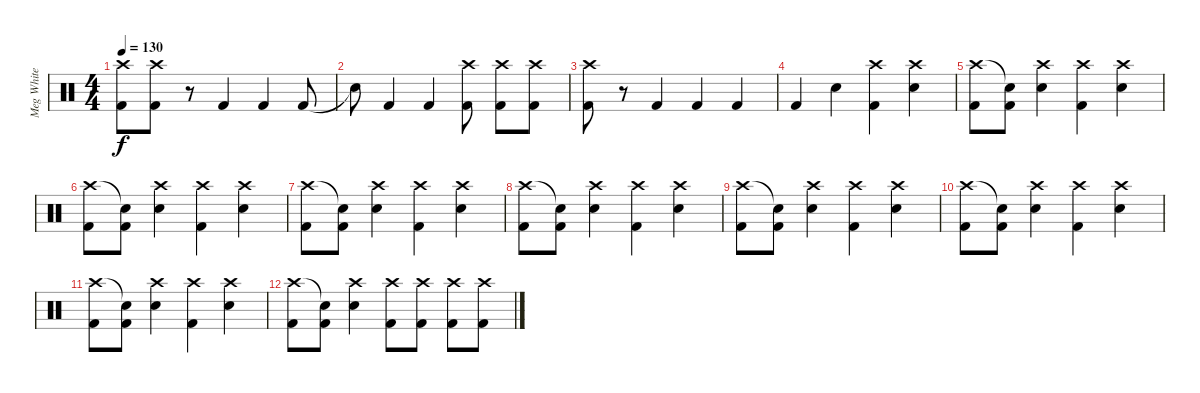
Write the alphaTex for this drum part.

\track ("Meg White" "Meg White") {instrument percussion}
\staff {score}
\articulation defaults
\ts (4 4)
\tempo 130
\clef neutral
\ks c
("Crash high (hit)" "Kick (hit) 2").8{dy f} ("Crash high (hit)" "Kick (hit) 2").8 r.8 "Kick (hit) 2".4 "Kick (hit) 2".4 "Kick (hit) 2".8 |
"Snare (hit)"{t}.8 "Kick (hit) 2".4 "Kick (hit) 2".4 ("Crash high (hit)" "Kick (hit) 2").8 ("Crash high (hit)" "Kick (hit) 2").8 ("Crash high (hit)" "Kick (hit) 2").8 |
("Crash high (hit)" "Kick (hit) 2").8 r.8 "Kick (hit) 2".4 "Kick (hit) 2".4 "Kick (hit) 2".4 |
"Kick (hit) 2".4 "Snare (hit) 2".4 ("Crash high (hit)" "Kick (hit) 2").4 ("Crash high (hit)" "Snare (hit) 2").4 |
("Crash high (hit)" "Kick (hit) 2").8 ("Snare (hit)"{t} "Kick (hit) 2").8 ("Crash high (hit)" "Snare (hit) 2").4 ("Crash high (hit)" "Kick (hit) 2").4 ("Crash high (hit)" "Snare (hit) 2").4 |
("Crash high (hit)" "Kick (hit) 2").8 ("Snare (hit)"{t} "Kick (hit) 2").8 ("Crash high (hit)" "Snare (hit) 2").4 ("Crash high (hit)" "Kick (hit) 2").4 ("Crash high (hit)" "Snare (hit) 2").4 |
("Crash high (hit)" "Kick (hit) 2").8 ("Snare (hit)"{t} "Kick (hit) 2").8 ("Crash high (hit)" "Snare (hit) 2").4 ("Crash high (hit)" "Kick (hit) 2").4 ("Crash high (hit)" "Snare (hit) 2").4 |
("Crash high (hit)" "Kick (hit) 2").8 ("Snare (hit)"{t} "Kick (hit) 2").8 ("Crash high (hit)" "Snare (hit) 2").4 ("Crash high (hit)" "Kick (hit) 2").4 ("Crash high (hit)" "Snare (hit) 2").4 |
("Crash high (hit)" "Kick (hit) 2").8 ("Snare (hit)"{t} "Kick (hit) 2").8 ("Crash high (hit)" "Snare (hit) 2").4 ("Crash high (hit)" "Kick (hit) 2").4 ("Crash high (hit)" "Snare (hit) 2").4 |
("Crash high (hit)" "Kick (hit) 2").8 ("Snare (hit)"{t} "Kick (hit) 2").8 ("Crash high (hit)" "Snare (hit) 2").4 ("Crash high (hit)" "Kick (hit) 2").4 ("Crash high (hit)" "Snare (hit) 2").4 |
("Crash high (hit)" "Kick (hit) 2").8 ("Snare (hit)"{t} "Kick (hit) 2").8 ("Crash high (hit)" "Snare (hit) 2").4 ("Crash high (hit)" "Kick (hit) 2").4 ("Crash high (hit)" "Snare (hit) 2").4 |
("Crash high (hit)" "Kick (hit) 2").8 ("Snare (hit)"{t} "Kick (hit) 2").8 ("Crash high (hit)" "Snare (hit) 2").4 ("Crash high (hit)" "Kick (hit) 2").8 ("Crash high (hit)" "Kick (hit) 2").8 ("Crash high (hit)" "Kick (hit) 2").8 ("Crash high (hit)" "Kick (hit) 2").8
